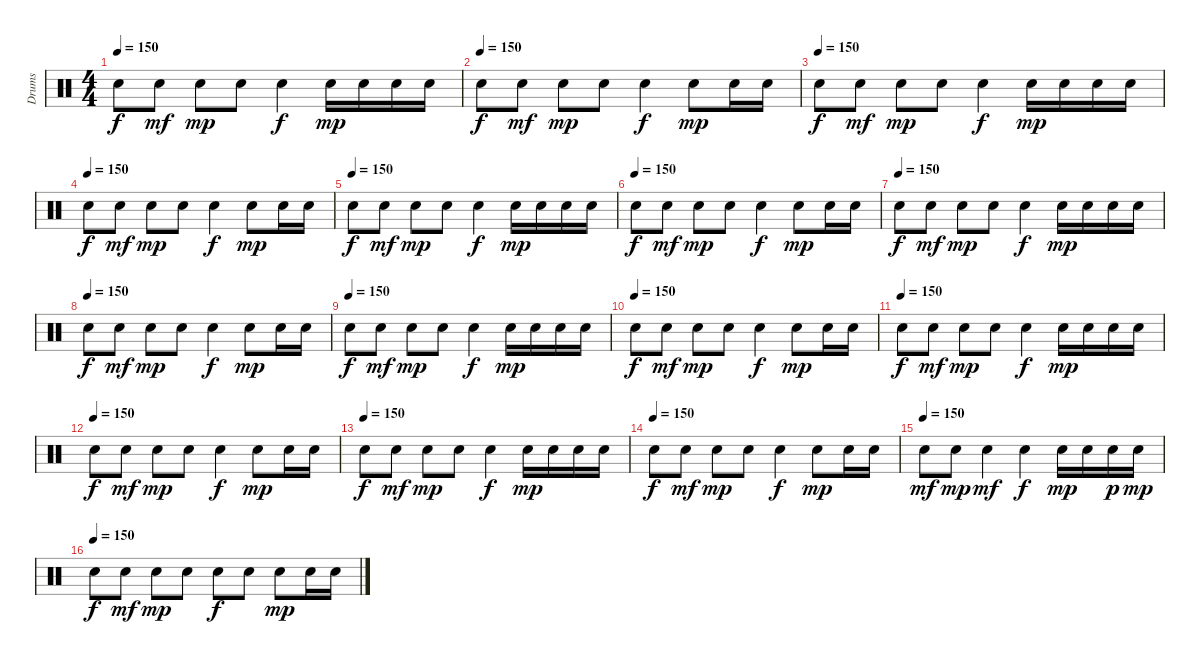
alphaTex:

\track ("Drums" "Drums") {instrument percussion}
\staff {score}
\articulation defaults
\ts (4 4)
\tempo 150
\clef neutral
\ks c "Electric Snare (hit)".8{dy f} "Electric Snare (hit)".8{dy mf} "Electric Snare (hit)".8{dy mp} "Electric Snare (hit)".8 "Electric Snare (hit)".4{dy f} "Electric Snare (hit)".16{dy mp} "Electric Snare (hit)".16 "Electric Snare (hit)".16 "Electric Snare (hit)".16
|
\tempo (150)
"Electric Snare (hit)".8{dy f} "Electric Snare (hit)".8{dy mf} "Electric Snare (hit)".8{dy mp} "Electric Snare (hit)".8 "Electric Snare (hit)".4{dy f} "Electric Snare (hit)".8{dy mp} "Electric Snare (hit)".16 "Electric Snare (hit)".16 |
\tempo (150)
"Electric Snare (hit)".8{dy f} "Electric Snare (hit)".8{dy mf} "Electric Snare (hit)".8{dy mp} "Electric Snare (hit)".8 "Electric Snare (hit)".4{dy f} "Electric Snare (hit)".16{dy mp} "Electric Snare (hit)".16 "Electric Snare (hit)".16 "Electric Snare (hit)".16 |
\tempo (150)
"Electric Snare (hit)".8{dy f} "Electric Snare (hit)".8{dy mf} "Electric Snare (hit)".8{dy mp} "Electric Snare (hit)".8 "Electric Snare (hit)".4{dy f} "Electric Snare (hit)".8{dy mp} "Electric Snare (hit)".16 "Electric Snare (hit)".16 |
\tempo (150)
"Electric Snare (hit)".8{dy f} "Electric Snare (hit)".8{dy mf} "Electric Snare (hit)".8{dy mp} "Electric Snare (hit)".8 "Electric Snare (hit)".4{dy f} "Electric Snare (hit)".16{dy mp} "Electric Snare (hit)".16 "Electric Snare (hit)".16 "Electric Snare (hit)".16 |
\tempo (150)
"Electric Snare (hit)".8{dy f} "Electric Snare (hit)".8{dy mf} "Electric Snare (hit)".8{dy mp} "Electric Snare (hit)".8 "Electric Snare (hit)".4{dy f} "Electric Snare (hit)".8{dy mp} "Electric Snare (hit)".16 "Electric Snare (hit)".16 |
\tempo (150)
"Electric Snare (hit)".8{dy f} "Electric Snare (hit)".8{dy mf} "Electric Snare (hit)".8{dy mp} "Electric Snare (hit)".8 "Electric Snare (hit)".4{dy f} "Electric Snare (hit)".16{dy mp} "Electric Snare (hit)".16 "Electric Snare (hit)".16 "Electric Snare (hit)".16 |
\tempo (150)
"Electric Snare (hit)".8{dy f} "Electric Snare (hit)".8{dy mf} "Electric Snare (hit)".8{dy mp} "Electric Snare (hit)".8 "Electric Snare (hit)".4{dy f} "Electric Snare (hit)".8{dy mp} "Electric Snare (hit)".16 "Electric Snare (hit)".16 |
\tempo (150)
"Electric Snare (hit)".8{dy f} "Electric Snare (hit)".8{dy mf} "Electric Snare (hit)".8{dy mp} "Electric Snare (hit)".8 "Electric Snare (hit)".4{dy f} "Electric Snare (hit)".16{dy mp} "Electric Snare (hit)".16 "Electric Snare (hit)".16 "Electric Snare (hit)".16 |
\tempo (150)
"Electric Snare (hit)".8{dy f} "Electric Snare (hit)".8{dy mf} "Electric Snare (hit)".8{dy mp} "Electric Snare (hit)".8 "Electric Snare (hit)".4{dy f} "Electric Snare (hit)".8{dy mp} "Electric Snare (hit)".16 "Electric Snare (hit)".16 |
\tempo (150)
"Electric Snare (hit)".8{dy f} "Electric Snare (hit)".8{dy mf} "Electric Snare (hit)".8{dy mp} "Electric Snare (hit)".8 "Electric Snare (hit)".4{dy f} "Electric Snare (hit)".16{dy mp} "Electric Snare (hit)".16 "Electric Snare (hit)".16 "Electric Snare (hit)".16 |
\tempo (150)
"Electric Snare (hit)".8{dy f} "Electric Snare (hit)".8{dy mf} "Electric Snare (hit)".8{dy mp} "Electric Snare (hit)".8 "Electric Snare (hit)".4{dy f} "Electric Snare (hit)".8{dy mp} "Electric Snare (hit)".16 "Electric Snare (hit)".16 |
\tempo (150)
"Electric Snare (hit)".8{dy f} "Electric Snare (hit)".8{dy mf} "Electric Snare (hit)".8{dy mp} "Electric Snare (hit)".8 "Electric Snare (hit)".4{dy f} "Electric Snare (hit)".16{dy mp} "Electric Snare (hit)".16 "Electric Snare (hit)".16 "Electric Snare (hit)".16 |
\tempo (150)
"Electric Snare (hit)".8{dy f} "Electric Snare (hit)".8{dy mf} "Electric Snare (hit)".8{dy mp} "Electric Snare (hit)".8 "Electric Snare (hit)".4{dy f} "Electric Snare (hit)".8{dy mp} "Electric Snare (hit)".16 "Electric Snare (hit)".16 |
\tempo (150)
"Electric Snare (hit)".8{dy mf} "Electric Snare (hit)".8{dy mp} "Electric Snare (hit)".4{dy mf} "Electric Snare (hit)".4{dy f} "Electric Snare (hit)".16{dy mp} "Electric Snare (hit)".16 "Electric Snare (hit)".16{dy p} "Electric Snare (hit)".16{dy mp} |
\tempo (150)
"Electric Snare (hit)".8{dy f} "Electric Snare (hit)".8{dy mf} "Electric Snare (hit)".8{dy mp} "Electric Snare (hit)".8 "Electric Snare (hit)".8{dy f} "Electric Snare (hit)".8 "Electric Snare (hit)".8{dy mp} "Electric Snare (hit)".16 "Electric Snare (hit)".16
